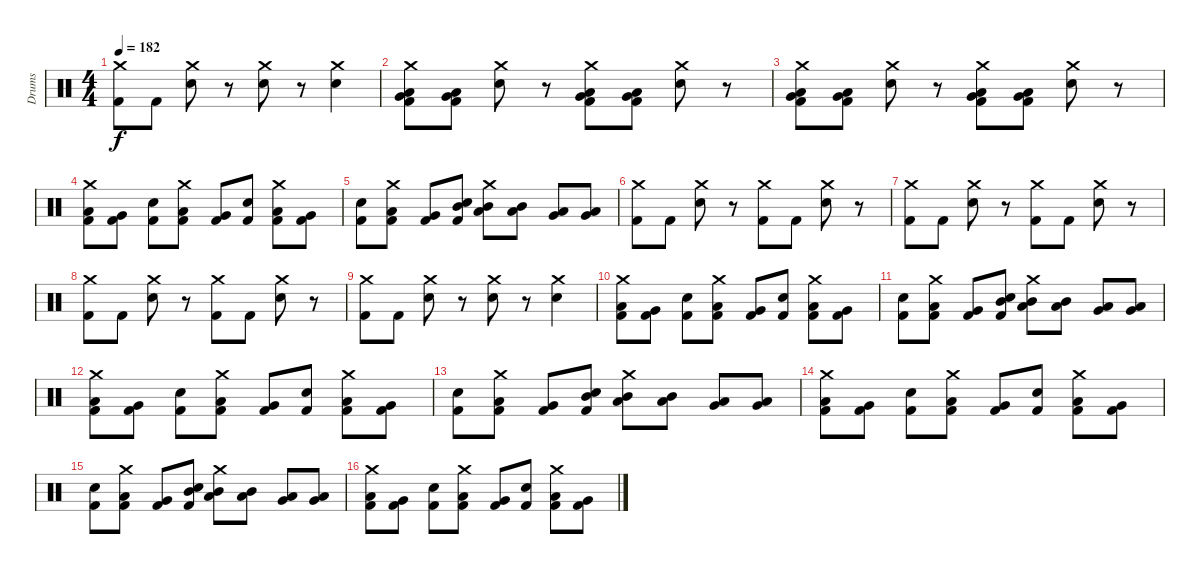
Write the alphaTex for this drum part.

\track ("Drums" "Drums") {instrument percussion}
\staff {score}
\articulation defaults
\ts (4 4)
\tempo 182
\clef neutral
\ks c
("Crash medium (hit)" "Kick (hit) 2").8{dy f} "Kick (hit) 2".8 ("Crash medium (hit)" "Snare (hit) 2").8 r.8 ("Crash medium (hit)" "Snare (hit) 2").8 r.8 ("Crash medium (hit)" "Snare (hit) 2").4 |
("Crash medium (hit)" "Very Low Tom (hit)" "Low Tom (hit)" "Kick (hit) 2").8 ("Very Low Tom (hit)" "Low Tom (hit)" "Kick (hit) 2").8 ("Crash medium (hit)" "Snare (hit) 2").8 r.8 ("Crash medium (hit)" "Very Low Tom (hit)" "Low Tom (hit)" "Kick (hit) 2").8 ("Very Low Tom (hit)" "Low Tom (hit)" "Kick (hit) 2").8 ("Crash medium (hit)" "Snare (hit) 2").8 r.8 |
("Crash medium (hit)" "Very Low Tom (hit)" "Low Tom (hit)" "Kick (hit) 2").8 ("Very Low Tom (hit)" "Low Tom (hit)" "Kick (hit) 2").8 ("Crash medium (hit)" "Snare (hit) 2").8 r.8 ("Crash medium (hit)" "Very Low Tom (hit)" "Low Tom (hit)" "Kick (hit) 2").8 ("Very Low Tom (hit)" "Low Tom (hit)" "Kick (hit) 2").8 ("Crash medium (hit)" "Snare (hit) 2").8 r.8 |
("Crash medium (hit)" "Low Tom (hit)" "Kick (hit) 2").8 ("Very Low Tom (hit)" "Kick (hit) 2").8 ("Snare (hit) 2" "Kick (hit) 2").8 ("Crash medium (hit)" "Low Tom (hit)" "Kick (hit) 2").8 ("Very Low Tom (hit)" "Kick (hit) 2").8 ("Snare (hit) 2" "Kick (hit) 2").8 ("Crash medium (hit)" "Low Tom (hit)" "Kick (hit) 2").8 ("Very Low Tom (hit)" "Kick (hit) 2").8 |
("Snare (hit) 2" "Kick (hit) 2").8 ("Crash medium (hit)" "Low Tom (hit)" "Kick (hit) 2").8 ("Very Low Tom (hit)" "Kick (hit) 2").8 ("Mid Tom (hit)" "Snare (hit) 2" "Kick (hit) 2").8 ("Crash medium (hit)" "Mid Tom (hit)" "Low Tom (hit)").8 ("Low Tom (hit)" "Mid Tom (hit)").8 ("Very Low Tom (hit)" "Low Tom (hit)").8 ("Low Floor Tom (hit)" "Very Low Tom (hit)").8 |
("Crash medium (hit)" "Kick (hit) 2").8 "Kick (hit) 2".8 ("Crash medium (hit)" "Snare (hit) 2").8 r.8 ("Crash medium (hit)" "Kick (hit) 2").8 "Kick (hit) 2".8 ("Crash medium (hit)" "Snare (hit) 2").8 r.8 |
("Crash medium (hit)" "Kick (hit) 2").8 "Kick (hit) 2".8 ("Crash medium (hit)" "Snare (hit) 2").8 r.8 ("Crash medium (hit)" "Kick (hit) 2").8 "Kick (hit) 2".8 ("Crash medium (hit)" "Snare (hit) 2").8 r.8 |
("Crash medium (hit)" "Kick (hit) 2").8 "Kick (hit) 2".8 ("Crash medium (hit)" "Snare (hit) 2").8 r.8 ("Crash medium (hit)" "Kick (hit) 2").8 "Kick (hit) 2".8 ("Crash medium (hit)" "Snare (hit) 2").8 r.8 |
("Crash medium (hit)" "Kick (hit) 2").8 "Kick (hit) 2".8 ("Crash medium (hit)" "Snare (hit) 2").8 r.8 ("Crash medium (hit)" "Snare (hit) 2").8 r.8 ("Crash medium (hit)" "Snare (hit) 2").4 |
("Crash medium (hit)" "Low Tom (hit)" "Kick (hit) 2").8 ("Very Low Tom (hit)" "Kick (hit) 2").8 ("Snare (hit) 2" "Kick (hit) 2").8 ("Crash medium (hit)" "Low Tom (hit)" "Kick (hit) 2").8 ("Very Low Tom (hit)" "Kick (hit) 2").8 ("Snare (hit) 2" "Kick (hit) 2").8 ("Crash medium (hit)" "Low Tom (hit)" "Kick (hit) 2").8 ("Very Low Tom (hit)" "Kick (hit) 2").8 |
("Snare (hit) 2" "Kick (hit) 2").8 ("Crash medium (hit)" "Low Tom (hit)" "Kick (hit) 2").8 ("Very Low Tom (hit)" "Kick (hit) 2").8 ("Mid Tom (hit)" "Snare (hit) 2" "Kick (hit) 2").8 ("Crash medium (hit)" "Mid Tom (hit)" "Low Tom (hit)").8 ("Low Tom (hit)" "Mid Tom (hit)").8 ("Very Low Tom (hit)" "Low Tom (hit)").8 ("Low Floor Tom (hit)" "Very Low Tom (hit)").8 |
("Crash medium (hit)" "Low Tom (hit)" "Kick (hit) 2").8 ("Very Low Tom (hit)" "Kick (hit) 2").8 ("Snare (hit) 2" "Kick (hit) 2").8 ("Crash medium (hit)" "Low Tom (hit)" "Kick (hit) 2").8 ("Very Low Tom (hit)" "Kick (hit) 2").8 ("Snare (hit) 2" "Kick (hit) 2").8 ("Crash medium (hit)" "Low Tom (hit)" "Kick (hit) 2").8 ("Very Low Tom (hit)" "Kick (hit) 2").8 |
("Snare (hit) 2" "Kick (hit) 2").8 ("Crash medium (hit)" "Low Tom (hit)" "Kick (hit) 2").8 ("Very Low Tom (hit)" "Kick (hit) 2").8 ("Mid Tom (hit)" "Snare (hit) 2" "Kick (hit) 2").8 ("Crash medium (hit)" "Mid Tom (hit)" "Low Tom (hit)").8 ("Low Tom (hit)" "Mid Tom (hit)").8 ("Very Low Tom (hit)" "Low Tom (hit)").8 ("Low Floor Tom (hit)" "Very Low Tom (hit)").8 |
("Crash medium (hit)" "Low Tom (hit)" "Kick (hit) 2").8 ("Very Low Tom (hit)" "Kick (hit) 2").8 ("Snare (hit) 2" "Kick (hit) 2").8 ("Crash medium (hit)" "Low Tom (hit)" "Kick (hit) 2").8 ("Very Low Tom (hit)" "Kick (hit) 2").8 ("Snare (hit) 2" "Kick (hit) 2").8 ("Crash medium (hit)" "Low Tom (hit)" "Kick (hit) 2").8 ("Very Low Tom (hit)" "Kick (hit) 2").8 |
("Snare (hit) 2" "Kick (hit) 2").8 ("Crash medium (hit)" "Low Tom (hit)" "Kick (hit) 2").8 ("Very Low Tom (hit)" "Kick (hit) 2").8 ("Mid Tom (hit)" "Snare (hit) 2" "Kick (hit) 2").8 ("Crash medium (hit)" "Mid Tom (hit)" "Low Tom (hit)").8 ("Low Tom (hit)" "Mid Tom (hit)").8 ("Very Low Tom (hit)" "Low Tom (hit)").8 ("Low Floor Tom (hit)" "Very Low Tom (hit)").8 |
("Crash medium (hit)" "Low Tom (hit)" "Kick (hit) 2").8 ("Very Low Tom (hit)" "Kick (hit) 2").8 ("Snare (hit) 2" "Kick (hit) 2").8 ("Crash medium (hit)" "Low Tom (hit)" "Kick (hit) 2").8 ("Very Low Tom (hit)" "Kick (hit) 2").8 ("Snare (hit) 2" "Kick (hit) 2").8 ("Crash medium (hit)" "Low Tom (hit)" "Kick (hit) 2").8 ("Very Low Tom (hit)" "Kick (hit) 2").8
